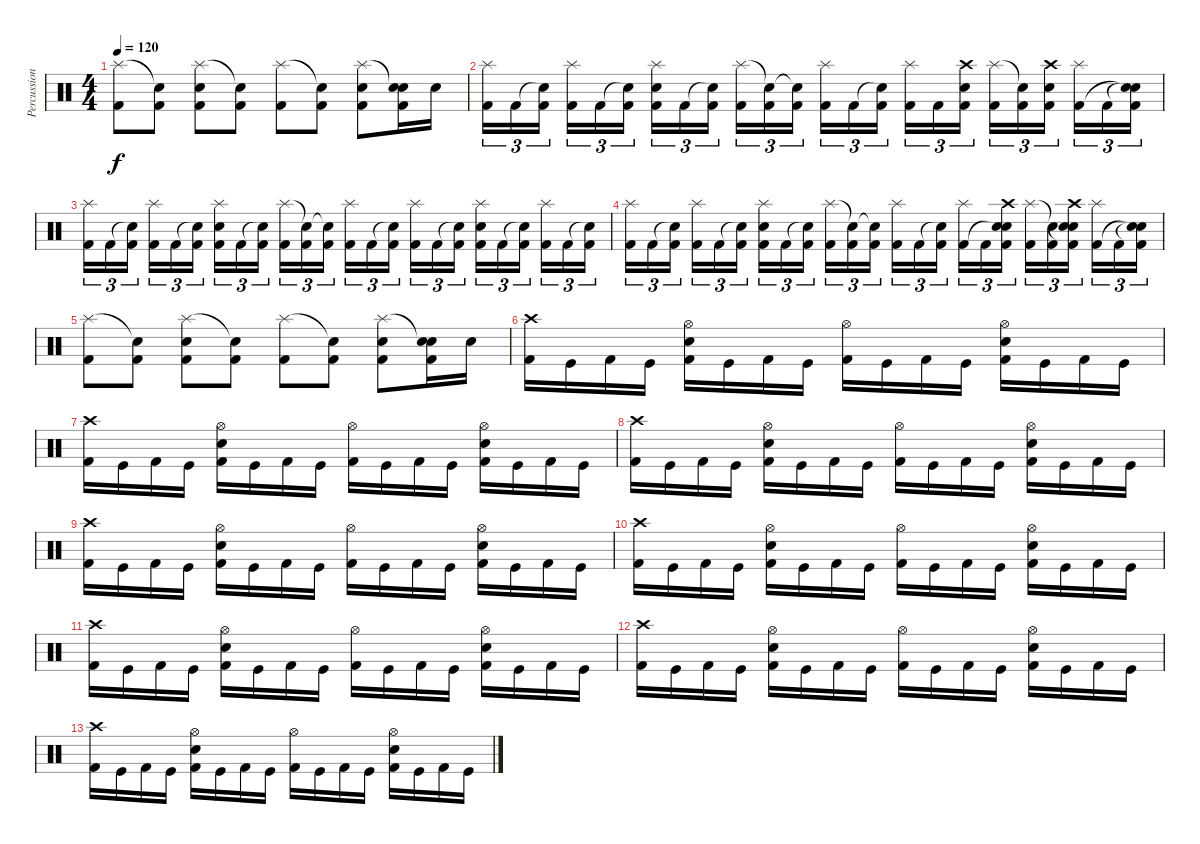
\track ("Percussion" "Percussion") {instrument percussion}
\staff {score}
\articulation defaults
\ts (4 4)
\tempo 120
\clef neutral
\ks c
("Splash (hit)" "Kick (hit) 2").8{dy f} ("Snare (hit)"{t} "Kick (hit) 2").8 ("Splash (hit)" "Electric Snare (hit)" "Kick (hit) 2").8 ("Snare (hit)"{t} "Kick (hit) 2").8 ("Splash (hit)" "Kick (hit) 2").8 ("Snare (hit)"{t} "Kick (hit) 2").8 ("Splash (hit)" "Electric Snare (hit)" "Kick (hit) 2").8 ("Snare (hit)"{t} "Electric Snare (hit)" "Kick (hit) 2").16 "Electric Snare (hit)".16 |
("Splash (hit)" "Kick (hit) 2").16{tu (3 2)} "Kick (hit) 2".16{tu (3 2)} ("Snare (hit)"{t} "Kick (hit) 2").16{tu (3 2) beam splitsecondary} ("Splash (hit)" "Kick (hit) 2").16{tu (3 2)} "Kick (hit) 2".16{tu (3 2)} ("Snare (hit)"{t} "Kick (hit) 2").16{tu (3 2)} ("Splash (hit)" "Electric Snare (hit)" "Kick (hit) 2").16{tu (3 2)} "Kick (hit) 2".16{tu (3 2)} ("Snare (hit)"{t} "Kick (hit) 2").16{tu (3 2) beam splitsecondary} ("Splash (hit)" "Kick (hit) 2").16{tu (3 2)} ("Snare (hit)"{t} "Kick (hit) 2").16{tu (3 2)} ("Snare (hit)"{t} "Kick (hit) 2").16{tu (3 2)} ("Splash (hit)" "Kick (hit) 2").16{tu (3 2)} "Kick (hit) 2".16{tu (3 2)} ("Snare (hit)"{t} "Kick (hit) 2").16{tu (3 2) beam splitsecondary} ("Splash (hit)" "Kick (hit) 2").16{tu (3 2)} "Kick (hit) 2".16{tu (3 2)} ("Crash high (hit)" "Snare (hit) 2" "Kick (hit) 2").16{tu (3 2)} ("Splash (hit)" "Kick (hit) 2").16{tu (3 2)} ("Snare (hit)"{t} "Kick (hit) 2").16{tu (3 2)} ("Crash high (hit)" "Snare (hit) 2" "Kick (hit) 2").16{tu (3 2) beam splitsecondary} ("Splash (hit)" "Kick (hit) 2").16{tu (3 2)} "Kick (hit) 2".16{tu (3 2)} ("Snare (hit)"{t} "Snare (hit)"{t} "Kick (hit) 2").16{tu (3 2)} |
("Splash (hit)" "Kick (hit) 2").16{tu (3 2)} "Kick (hit) 2".16{tu (3 2)} ("Snare (hit)"{t} "Kick (hit) 2").16{tu (3 2) beam splitsecondary} ("Splash (hit)" "Kick (hit) 2").16{tu (3 2)} "Kick (hit) 2".16{tu (3 2)} ("Snare (hit)"{t} "Kick (hit) 2").16{tu (3 2)} ("Splash (hit)" "Electric Snare (hit)" "Kick (hit) 2").16{tu (3 2)} "Kick (hit) 2".16{tu (3 2)} ("Snare (hit)"{t} "Kick (hit) 2").16{tu (3 2) beam splitsecondary} ("Splash (hit)" "Kick (hit) 2").16{tu (3 2)} ("Snare (hit)"{t} "Kick (hit) 2").16{tu (3 2)} ("Snare (hit)"{t} "Kick (hit) 2").16{tu (3 2)} ("Splash (hit)" "Kick (hit) 2").16{tu (3 2)} "Kick (hit) 2".16{tu (3 2)} ("Snare (hit)"{t} "Kick (hit) 2").16{tu (3 2) beam splitsecondary} ("Splash (hit)" "Kick (hit) 2").16{tu (3 2)} "Kick (hit) 2".16{tu (3 2)} ("Snare (hit)"{t} "Kick (hit) 2").16{tu (3 2)} ("Splash (hit)" "Snare (hit) 2" "Kick (hit) 2").16{tu (3 2)} "Kick (hit) 2".16{tu (3 2)} ("Snare (hit)"{t} "Kick (hit) 2").16{tu (3 2) beam splitsecondary} ("Splash (hit)" "Kick (hit) 2").16{tu (3 2)} "Kick (hit) 2".16{tu (3 2)} ("Snare (hit)"{t} "Kick (hit) 2").16{tu (3 2)} |
("Splash (hit)" "Kick (hit) 2").16{tu (3 2)} "Kick (hit) 2".16{tu (3 2)} ("Snare (hit)"{t} "Kick (hit) 2").16{tu (3 2) beam splitsecondary} ("Splash (hit)" "Kick (hit) 2").16{tu (3 2)} "Kick (hit) 2".16{tu (3 2)} ("Snare (hit)"{t} "Kick (hit) 2").16{tu (3 2)} ("Splash (hit)" "Electric Snare (hit)" "Kick (hit) 2").16{tu (3 2)} "Kick (hit) 2".16{tu (3 2)} ("Snare (hit)"{t} "Kick (hit) 2").16{tu (3 2) beam splitsecondary} ("Splash (hit)" "Kick (hit) 2").16{tu (3 2)} ("Snare (hit)"{t} "Kick (hit) 2").16{tu (3 2)} ("Snare (hit)"{t} "Kick (hit) 2").16{tu (3 2)} ("Splash (hit)" "Kick (hit) 2").16{tu (3 2)} "Kick (hit) 2".16{tu (3 2)} ("Snare (hit)"{t} "Kick (hit) 2").16{tu (3 2) beam splitsecondary} ("Splash (hit)" "Kick (hit) 2").16{tu (3 2)} "Kick (hit) 2".16{tu (3 2)} ("Crash high (hit)" "Snare (hit)"{t} "Snare (hit) 2" "Kick (hit) 2").16{tu (3 2)} ("Splash (hit)" "Kick (hit) 2").16{tu (3 2)} ("Snare (hit)"{t} "Kick (hit) 2").16{tu (3 2)} ("Crash high (hit)" "Snare (hit)"{t} "Snare (hit) 2" "Kick (hit) 2").16{tu (3 2) beam splitsecondary} ("Splash (hit)" "Kick (hit) 2").16{tu (3 2)} "Kick (hit) 2".16{tu (3 2)} ("Snare (hit)"{t} "Snare (hit)"{t} "Kick (hit) 2").16{tu (3 2)} |
("Splash (hit)" "Kick (hit) 2").8 ("Snare (hit)"{t} "Kick (hit) 2").8 ("Splash (hit)" "Electric Snare (hit)" "Kick (hit) 2").8 ("Snare (hit)"{t} "Kick (hit) 2").8 ("Splash (hit)" "Kick (hit) 2").8 ("Snare (hit)"{t} "Kick (hit) 2").8 ("Splash (hit)" "Electric Snare (hit)" "Kick (hit) 2").8 ("Snare (hit)"{t} "Electric Snare (hit)" "Kick (hit) 2").16 "Electric Snare (hit)".16 |
("Crash high (hit)" "Kick (hit) 2").16 "Kick (hit)".16 "Kick (hit) 2".16 "Kick (hit)".16 ("Hi-Hat (open)" "Electric Snare (hit)" "Kick (hit) 2").16 "Kick (hit)".16 "Kick (hit) 2".16 "Kick (hit)".16 ("Hi-Hat (open)" "Kick (hit) 2").16 "Kick (hit)".16 "Kick (hit) 2".16 "Kick (hit)".16 ("Hi-Hat (open)" "Electric Snare (hit)" "Kick (hit) 2").16 "Kick (hit)".16 "Kick (hit) 2".16 "Kick (hit)".16 |
("Crash high (hit)" "Kick (hit) 2").16 "Kick (hit)".16 "Kick (hit) 2".16 "Kick (hit)".16 ("Hi-Hat (open)" "Electric Snare (hit)" "Kick (hit) 2").16 "Kick (hit)".16 "Kick (hit) 2".16 "Kick (hit)".16 ("Hi-Hat (open)" "Kick (hit) 2").16 "Kick (hit)".16 "Kick (hit) 2".16 "Kick (hit)".16 ("Hi-Hat (open)" "Electric Snare (hit)" "Kick (hit) 2").16 "Kick (hit)".16 "Kick (hit) 2".16 "Kick (hit)".16 |
("Crash high (hit)" "Kick (hit) 2").16 "Kick (hit)".16 "Kick (hit) 2".16 "Kick (hit)".16 ("Hi-Hat (open)" "Electric Snare (hit)" "Kick (hit) 2").16 "Kick (hit)".16 "Kick (hit) 2".16 "Kick (hit)".16 ("Hi-Hat (open)" "Kick (hit) 2").16 "Kick (hit)".16 "Kick (hit) 2".16 "Kick (hit)".16 ("Hi-Hat (open)" "Electric Snare (hit)" "Kick (hit) 2").16 "Kick (hit)".16 "Kick (hit) 2".16 "Kick (hit)".16 |
("Crash high (hit)" "Kick (hit) 2").16 "Kick (hit)".16 "Kick (hit) 2".16 "Kick (hit)".16 ("Hi-Hat (open)" "Electric Snare (hit)" "Kick (hit) 2").16 "Kick (hit)".16 "Kick (hit) 2".16 "Kick (hit)".16 ("Hi-Hat (open)" "Kick (hit) 2").16 "Kick (hit)".16 "Kick (hit) 2".16 "Kick (hit)".16 ("Hi-Hat (open)" "Electric Snare (hit)" "Kick (hit) 2").16 "Kick (hit)".16 "Kick (hit) 2".16 "Kick (hit)".16 |
("Crash high (hit)" "Kick (hit) 2").16 "Kick (hit)".16 "Kick (hit) 2".16 "Kick (hit)".16 ("Hi-Hat (open)" "Electric Snare (hit)" "Kick (hit) 2").16 "Kick (hit)".16 "Kick (hit) 2".16 "Kick (hit)".16 ("Hi-Hat (open)" "Kick (hit) 2").16 "Kick (hit)".16 "Kick (hit) 2".16 "Kick (hit)".16 ("Hi-Hat (open)" "Electric Snare (hit)" "Kick (hit) 2").16 "Kick (hit)".16 "Kick (hit) 2".16 "Kick (hit)".16 |
("Crash high (hit)" "Kick (hit) 2").16 "Kick (hit)".16 "Kick (hit) 2".16 "Kick (hit)".16 ("Hi-Hat (open)" "Electric Snare (hit)" "Kick (hit) 2").16 "Kick (hit)".16 "Kick (hit) 2".16 "Kick (hit)".16 ("Hi-Hat (open)" "Kick (hit) 2").16 "Kick (hit)".16 "Kick (hit) 2".16 "Kick (hit)".16 ("Hi-Hat (open)" "Electric Snare (hit)" "Kick (hit) 2").16 "Kick (hit)".16 "Kick (hit) 2".16 "Kick (hit)".16 |
("Crash high (hit)" "Kick (hit) 2").16 "Kick (hit)".16 "Kick (hit) 2".16 "Kick (hit)".16 ("Hi-Hat (open)" "Electric Snare (hit)" "Kick (hit) 2").16 "Kick (hit)".16 "Kick (hit) 2".16 "Kick (hit)".16 ("Hi-Hat (open)" "Kick (hit) 2").16 "Kick (hit)".16 "Kick (hit) 2".16 "Kick (hit)".16 ("Hi-Hat (open)" "Electric Snare (hit)" "Kick (hit) 2").16 "Kick (hit)".16 "Kick (hit) 2".16 "Kick (hit)".16 |
("Crash high (hit)" "Kick (hit) 2").16 "Kick (hit)".16 "Kick (hit) 2".16 "Kick (hit)".16 ("Hi-Hat (open)" "Electric Snare (hit)" "Kick (hit) 2").16 "Kick (hit)".16 "Kick (hit) 2".16 "Kick (hit)".16 ("Hi-Hat (open)" "Kick (hit) 2").16 "Kick (hit)".16 "Kick (hit) 2".16 "Kick (hit)".16 ("Hi-Hat (open)" "Electric Snare (hit)" "Kick (hit) 2").16 "Kick (hit)".16 "Kick (hit) 2".16 "Kick (hit)".16
